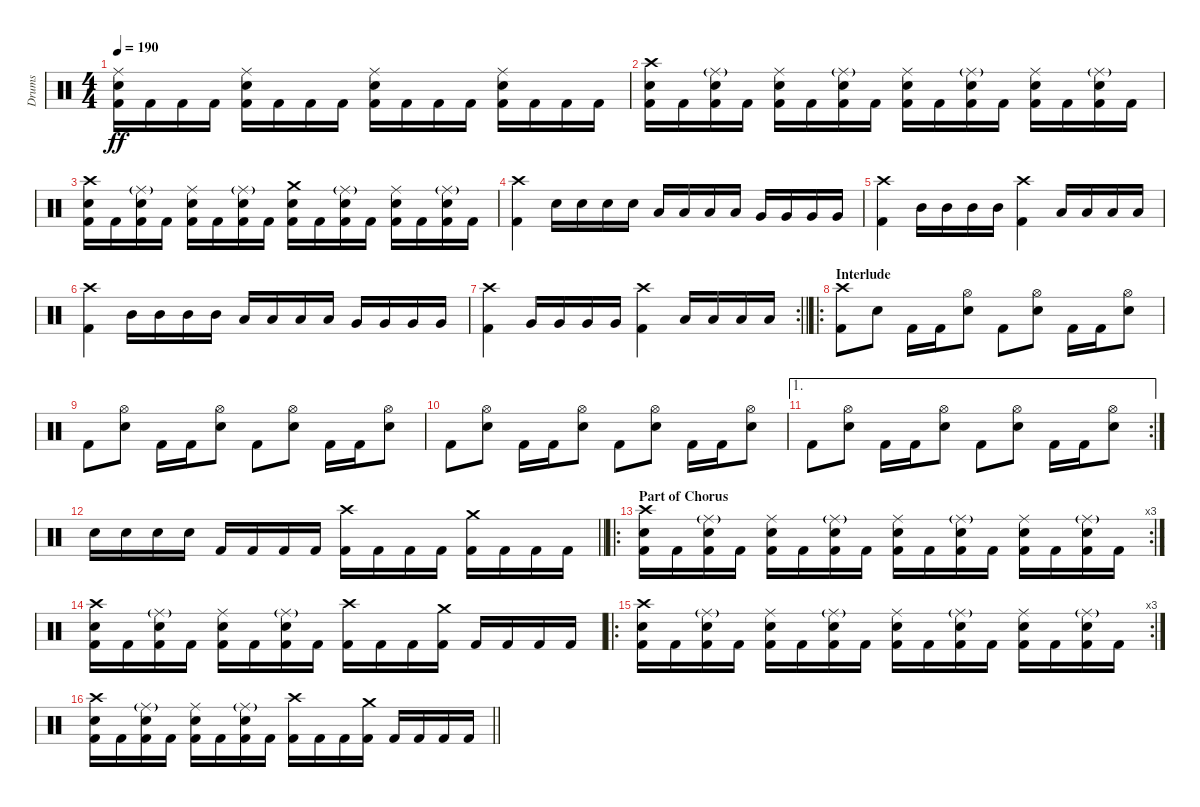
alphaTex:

\track ("Drums" "Drums") {instrument percussion}
\staff {score}
\articulation defaults
\ts (4 4)
\tempo 190
\clef neutral
\ks c
("Ride (middle)" "Electric Snare (hit)" "Kick (hit) 2").16{dy ff} "Kick (hit) 2".16 "Kick (hit) 2".16 "Kick (hit) 2".16 ("Ride (middle)" "Electric Snare (hit)" "Kick (hit) 2").16 "Kick (hit) 2".16 "Kick (hit) 2".16 "Kick (hit) 2".16 ("Ride (middle)" "Electric Snare (hit)" "Kick (hit) 2").16 "Kick (hit) 2".16 "Kick (hit) 2".16 "Kick (hit) 2".16 ("Ride (middle)" "Electric Snare (hit)" "Kick (hit) 2").16 "Kick (hit) 2".16 "Kick (hit) 2".16 "Kick (hit) 2".16 |
("Crash high (hit)" "Electric Snare (hit)" "Kick (hit) 2").16 "Kick (hit) 2".16 ("Ride (middle)"{g} "Electric Snare (hit)" "Kick (hit) 2").16 "Kick (hit) 2".16 ("Ride (middle)" "Electric Snare (hit)" "Kick (hit) 2").16 "Kick (hit) 2".16 ("Ride (middle)"{g} "Electric Snare (hit)" "Kick (hit) 2").16 "Kick (hit) 2".16 ("Ride (middle)" "Electric Snare (hit)" "Kick (hit) 2").16 "Kick (hit) 2".16 ("Ride (middle)"{g} "Electric Snare (hit)" "Kick (hit) 2").16 "Kick (hit) 2".16 ("Ride (middle)" "Electric Snare (hit)" "Kick (hit) 2").16 "Kick (hit) 2".16 ("Ride (middle)"{g} "Electric Snare (hit)" "Kick (hit) 2").16 "Kick (hit) 2".16 |
("Crash high (hit)" "Electric Snare (hit)" "Kick (hit) 2").16 "Kick (hit) 2".16 ("Ride (middle)"{g} "Electric Snare (hit)" "Kick (hit) 2").16 "Kick (hit) 2".16 ("Ride (middle)" "Electric Snare (hit)" "Kick (hit) 2").16 "Kick (hit) 2".16 ("Ride (middle)"{g} "Electric Snare (hit)" "Kick (hit) 2").16 "Kick (hit) 2".16 ("Crash medium (hit)" "Electric Snare (hit)" "Kick (hit) 2").16 "Kick (hit) 2".16 ("Ride (middle)"{g} "Electric Snare (hit)" "Kick (hit) 2").16 "Kick (hit) 2".16 ("Ride (middle)" "Electric Snare (hit)" "Kick (hit) 2").16 "Kick (hit) 2".16 ("Ride (middle)"{g} "Electric Snare (hit)" "Kick (hit) 2").16 "Kick (hit) 2".16 |
("Crash high (hit)" "Kick (hit) 2").4 "Electric Snare (hit)".16 "Electric Snare (hit)".16 "Electric Snare (hit)".16 "Electric Snare (hit)".16 "Low Tom (hit)".16 "Low Tom (hit)".16 "Low Tom (hit)".16 "Low Tom (hit)".16 "Very Low Tom (hit)".16 "Very Low Tom (hit)".16 "Very Low Tom (hit)".16 "Very Low Tom (hit)".16 |
("Crash high (hit)" "Kick (hit) 2").4 "Mid Tom (hit)".16 "Mid Tom (hit)".16 "Mid Tom (hit)".16 "Mid Tom (hit)".16 ("Crash high (hit)" "Kick (hit) 2").4 "Low Tom (hit)".16 "Low Tom (hit)".16 "Low Tom (hit)".16 "Low Tom (hit)".16 |
("Crash high (hit)" "Kick (hit) 2").4 "Mid Tom (hit)".16 "Mid Tom (hit)".16 "Mid Tom (hit)".16 "Mid Tom (hit)".16 "Low Tom (hit)".16 "Low Tom (hit)".16 "Low Tom (hit)".16 "Low Tom (hit)".16 "Very Low Tom (hit)".16 "Very Low Tom (hit)".16 "Very Low Tom (hit)".16 "Very Low Tom (hit)".16 |
\rc 2
\barLineRight lightlight
("Crash high (hit)" "Kick (hit) 2").4 "Very Low Tom (hit)".16 "Very Low Tom (hit)".16 "Very Low Tom (hit)".16 "Very Low Tom (hit)".16 ("Crash high (hit)" "Kick (hit) 2").4 "Low Floor Tom (hit)".16 "Low Floor Tom (hit)".16 "Low Floor Tom (hit)".16 "Low Floor Tom (hit)".16 |
\ro
\section ("" "Interlude")
("Crash high (hit)" "Kick (hit) 2").8 "Electric Snare (hit)".8 "Kick (hit) 2".16 "Kick (hit) 2".16 ("Hi-Hat (open)" "Electric Snare (hit)").8 "Kick (hit) 2".8 ("Hi-Hat (open)" "Electric Snare (hit)").8 "Kick (hit) 2".16 "Kick (hit) 2".16 ("Hi-Hat (open)" "Electric Snare (hit)").8 |
"Kick (hit) 2".8 ("Hi-Hat (open)" "Electric Snare (hit)").8 "Kick (hit) 2".16 "Kick (hit) 2".16 ("Hi-Hat (open)" "Electric Snare (hit)").8 "Kick (hit) 2".8 ("Hi-Hat (open)" "Electric Snare (hit)").8 "Kick (hit) 2".16 "Kick (hit) 2".16 ("Hi-Hat (open)" "Electric Snare (hit)").8 |
"Kick (hit) 2".8 ("Hi-Hat (open)" "Electric Snare (hit)").8 "Kick (hit) 2".16 "Kick (hit) 2".16 ("Hi-Hat (open)" "Electric Snare (hit)").8 "Kick (hit) 2".8 ("Hi-Hat (open)" "Electric Snare (hit)").8 "Kick (hit) 2".16 "Kick (hit) 2".16 ("Hi-Hat (open)" "Electric Snare (hit)").8 |
\ae 1
\rc 2 "Kick (hit) 2".8
("Hi-Hat (open)" "Electric Snare (hit)").8 "Kick (hit) 2".16 "Kick (hit) 2".16 ("Hi-Hat (open)" "Electric Snare (hit)").8 "Kick (hit) 2".8 ("Hi-Hat (open)" "Electric Snare (hit)").8 "Kick (hit) 2".16 "Kick (hit) 2".16 ("Hi-Hat (open)" "Electric Snare (hit)").8 |
\barLineRight lightlight "Electric Snare (hit)".16 "Electric Snare (hit)".16 "Electric Snare (hit)".16 "Electric Snare (hit)".16 "Kick (hit) 2".16 "Kick (hit) 2".16 "Kick (hit) 2".16 "Kick (hit) 2".16
("Crash high (hit)" "Kick (hit) 2").16 "Kick (hit) 2".16 "Kick (hit) 2".16 "Kick (hit) 2".16 ("Crash medium (hit)" "Kick (hit) 2").16 "Kick (hit) 2".16 "Kick (hit) 2".16 "Kick (hit) 2".16 |
\ro
\rc 3
\section ("" "Part of Chorus")
("Crash high (hit)" "Electric Snare (hit)" "Kick (hit) 2").16 "Kick (hit) 2".16 ("Ride (middle)"{g} "Electric Snare (hit)" "Kick (hit) 2").16 "Kick (hit) 2".16 ("Ride (middle)" "Electric Snare (hit)" "Kick (hit) 2").16 "Kick (hit) 2".16 ("Ride (middle)"{g} "Electric Snare (hit)" "Kick (hit) 2").16 "Kick (hit) 2".16 ("Ride (middle)" "Electric Snare (hit)" "Kick (hit) 2").16 "Kick (hit) 2".16 ("Ride (middle)"{g} "Electric Snare (hit)" "Kick (hit) 2").16 "Kick (hit) 2".16 ("Ride (middle)" "Electric Snare (hit)" "Kick (hit) 2").16 "Kick (hit) 2".16 ("Ride (middle)"{g} "Electric Snare (hit)" "Kick (hit) 2").16 "Kick (hit) 2".16 |
("Crash high (hit)" "Electric Snare (hit)" "Kick (hit) 2").16 "Kick (hit) 2".16 ("Ride (middle)"{g} "Electric Snare (hit)" "Kick (hit) 2").16 "Kick (hit) 2".16 ("Ride (middle)" "Electric Snare (hit)" "Kick (hit) 2").16 "Kick (hit) 2".16 ("Ride (middle)"{g} "Electric Snare (hit)" "Kick (hit) 2").16 "Kick (hit) 2".16 ("Crash high (hit)" "Kick (hit) 2").16 "Kick (hit) 2".16 "Kick (hit) 2".16 ("Crash medium (hit)" "Kick (hit) 2").16 "Kick (hit) 2".16 "Kick (hit) 2".16 "Kick (hit) 2".16 "Kick (hit) 2".16 |
\ro
\rc 3
("Crash high (hit)" "Electric Snare (hit)" "Kick (hit) 2").16 "Kick (hit) 2".16 ("Ride (middle)"{g} "Electric Snare (hit)" "Kick (hit) 2").16 "Kick (hit) 2".16 ("Ride (middle)" "Electric Snare (hit)" "Kick (hit) 2").16 "Kick (hit) 2".16 ("Ride (middle)"{g} "Electric Snare (hit)" "Kick (hit) 2").16 "Kick (hit) 2".16 ("Ride (middle)" "Electric Snare (hit)" "Kick (hit) 2").16 "Kick (hit) 2".16 ("Ride (middle)"{g} "Electric Snare (hit)" "Kick (hit) 2").16 "Kick (hit) 2".16 ("Ride (middle)" "Electric Snare (hit)" "Kick (hit) 2").16 "Kick (hit) 2".16 ("Ride (middle)"{g} "Electric Snare (hit)" "Kick (hit) 2").16 "Kick (hit) 2".16 |
\barLineRight lightlight
("Crash high (hit)" "Electric Snare (hit)" "Kick (hit) 2").16 "Kick (hit) 2".16 ("Ride (middle)"{g} "Electric Snare (hit)" "Kick (hit) 2").16 "Kick (hit) 2".16 ("Ride (middle)" "Electric Snare (hit)" "Kick (hit) 2").16 "Kick (hit) 2".16 ("Ride (middle)"{g} "Electric Snare (hit)" "Kick (hit) 2").16 "Kick (hit) 2".16 ("Crash high (hit)" "Kick (hit) 2").16 "Kick (hit) 2".16 "Kick (hit) 2".16 ("Crash medium (hit)" "Kick (hit) 2").16 "Kick (hit) 2".16 "Kick (hit) 2".16 "Kick (hit) 2".16 "Kick (hit) 2".16
